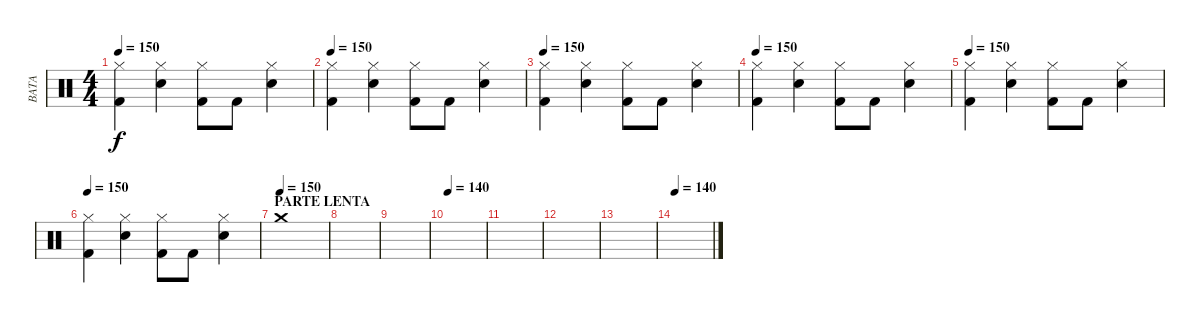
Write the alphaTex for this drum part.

\track ("BATA" "BATA") {instrument percussion}
\staff {score}
\articulation defaults
\ts (4 4)
\tempo 150
\clef neutral
\ks c
("Hi-Hat (closed)" "Kick (hit) 2").4{dy f} ("Hi-Hat (closed)" "Snare (hit) 2").4 ("Hi-Hat (closed)" "Kick (hit) 2").8 "Kick (hit) 2".8 ("Hi-Hat (closed)" "Snare (hit) 2").4 |
\tempo 150
("Hi-Hat (closed)" "Kick (hit) 2").4 ("Hi-Hat (closed)" "Snare (hit) 2").4 ("Hi-Hat (closed)" "Kick (hit) 2").8 "Kick (hit) 2".8 ("Hi-Hat (closed)" "Snare (hit) 2").4 |
\tempo 150
("Hi-Hat (closed)" "Kick (hit) 2").4 ("Hi-Hat (closed)" "Snare (hit) 2").4 ("Hi-Hat (closed)" "Kick (hit) 2").8 "Kick (hit) 2".8 ("Hi-Hat (closed)" "Snare (hit) 2").4 |
\tempo 150
("Hi-Hat (closed)" "Kick (hit) 2").4 ("Hi-Hat (closed)" "Snare (hit) 2").4 ("Hi-Hat (closed)" "Kick (hit) 2").8 "Kick (hit) 2".8 ("Hi-Hat (closed)" "Snare (hit) 2").4 |
\tempo 150
("Hi-Hat (closed)" "Kick (hit) 2").4 ("Hi-Hat (closed)" "Snare (hit) 2").4 ("Hi-Hat (closed)" "Kick (hit) 2").8 "Kick (hit) 2".8 ("Hi-Hat (closed)" "Snare (hit) 2").4 |
\tempo 150
("Hi-Hat (closed)" "Kick (hit) 2").4 ("Hi-Hat (closed)" "Snare (hit) 2").4 ("Hi-Hat (closed)" "Kick (hit) 2").8 "Kick (hit) 2".8 ("Hi-Hat (closed)" "Snare (hit) 2").4 |
\section ("" "PARTE LENTA")
\tempo (150)
"Crash medium (hit)".1 |
|
|
\tempo 140
|
|
|
|
\tempo 140
